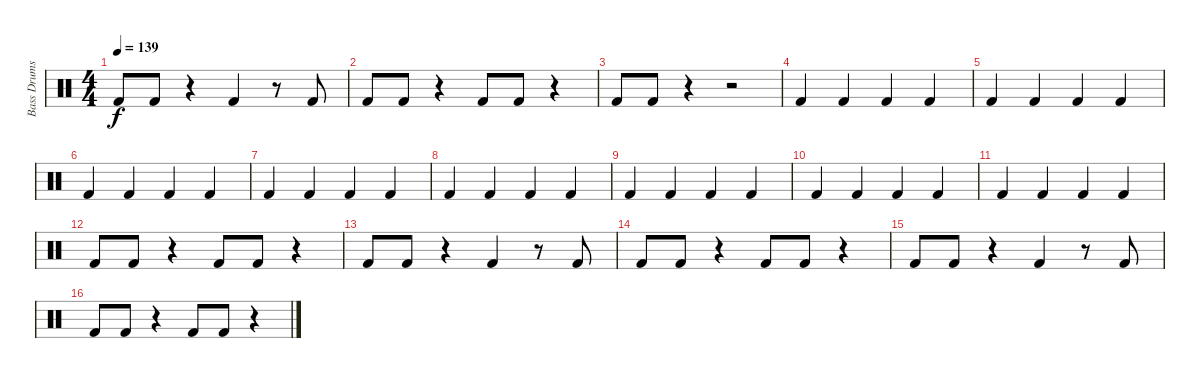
\track ("Bass Drums" "Bass Drums") {instrument percussion}
\staff {score}
\articulation defaults
\ts (4 4)
\tempo 139
\clef neutral
\ks c "Kick (hit) 2".8{dy f} "Kick (hit) 2".8
r.4 "Kick (hit) 2".4 r.8 "Kick (hit) 2".8 |
"Kick (hit) 2".8 "Kick (hit) 2".8 r.4 "Kick (hit) 2".8 "Kick (hit) 2".8 r.4 |
"Kick (hit) 2".8 "Kick (hit) 2".8 r.4 r.2 |
"Kick (hit) 2".4 "Kick (hit) 2".4 "Kick (hit) 2".4 "Kick (hit) 2".4 |
"Kick (hit) 2".4 "Kick (hit) 2".4 "Kick (hit) 2".4 "Kick (hit) 2".4 |
"Kick (hit) 2".4 "Kick (hit) 2".4 "Kick (hit) 2".4 "Kick (hit) 2".4 |
"Kick (hit) 2".4 "Kick (hit) 2".4 "Kick (hit) 2".4 "Kick (hit) 2".4 |
"Kick (hit) 2".4 "Kick (hit) 2".4 "Kick (hit) 2".4 "Kick (hit) 2".4 |
"Kick (hit) 2".4 "Kick (hit) 2".4 "Kick (hit) 2".4 "Kick (hit) 2".4 |
"Kick (hit) 2".4 "Kick (hit) 2".4 "Kick (hit) 2".4 "Kick (hit) 2".4 |
"Kick (hit) 2".4 "Kick (hit) 2".4 "Kick (hit) 2".4 "Kick (hit) 2".4 |
"Kick (hit) 2".8 "Kick (hit) 2".8 r.4 "Kick (hit) 2".8 "Kick (hit) 2".8 r.4 |
"Kick (hit) 2".8 "Kick (hit) 2".8 r.4 "Kick (hit) 2".4 r.8 "Kick (hit) 2".8 |
"Kick (hit) 2".8 "Kick (hit) 2".8 r.4 "Kick (hit) 2".8 "Kick (hit) 2".8 r.4 |
"Kick (hit) 2".8 "Kick (hit) 2".8 r.4 "Kick (hit) 2".4 r.8 "Kick (hit) 2".8 |
"Kick (hit) 2".8 "Kick (hit) 2".8 r.4 "Kick (hit) 2".8 "Kick (hit) 2".8 r.4
